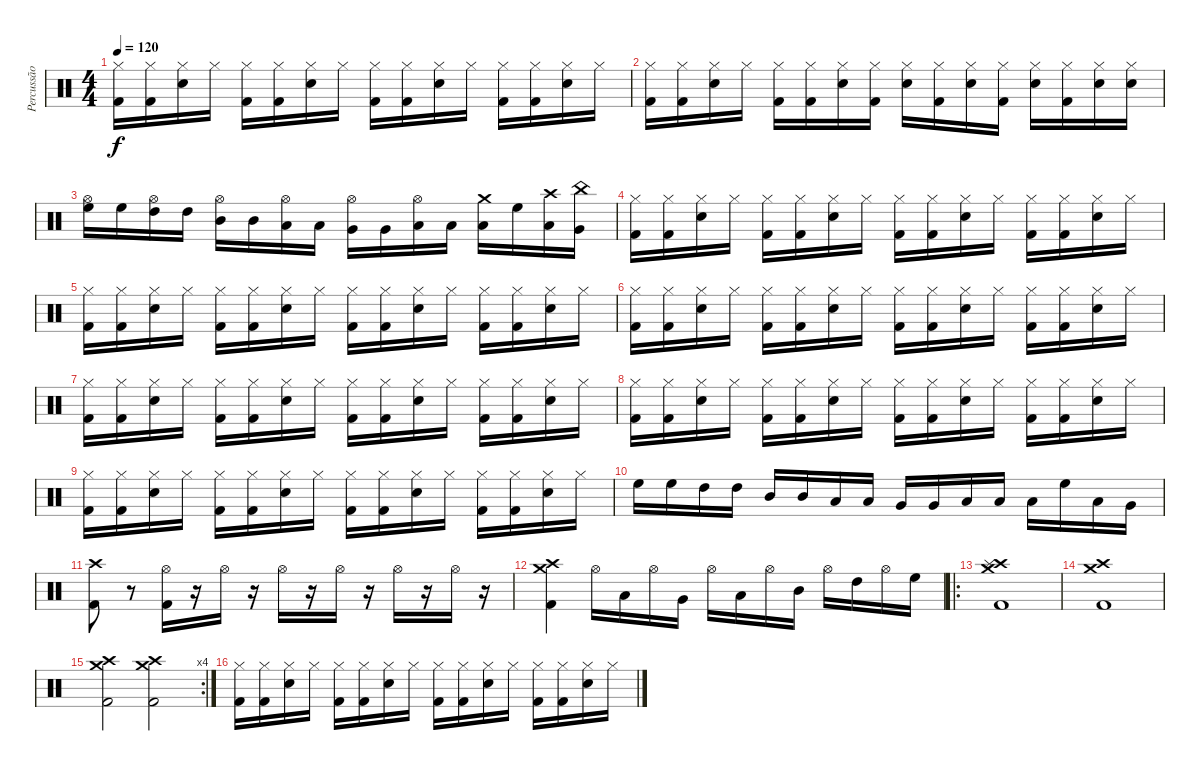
\track ("Percussão" "Percussão") {instrument percussion}
\staff {score}
\articulation defaults
\ts (4 4)
\tempo 120
\clef neutral
\ks c
("Hi-Hat (closed)" "Kick (hit) 2").16{dy f} ("Hi-Hat (closed)" "Kick (hit) 2").16 ("Hi-Hat (closed)" "Electric Snare (hit)").16 "Hi-Hat (closed)".16 ("Hi-Hat (closed)" "Kick (hit) 2").16 ("Hi-Hat (closed)" "Kick (hit) 2").16 ("Hi-Hat (closed)" "Electric Snare (hit)").16 "Hi-Hat (closed)".16 ("Hi-Hat (closed)" "Kick (hit) 2").16 ("Hi-Hat (closed)" "Kick (hit) 2").16 ("Hi-Hat (closed)" "Electric Snare (hit)").16 "Hi-Hat (closed)".16 ("Hi-Hat (closed)" "Kick (hit) 2").16 ("Hi-Hat (closed)" "Kick (hit) 2").16 ("Hi-Hat (closed)" "Electric Snare (hit)").16 "Hi-Hat (closed)".16 |
("Hi-Hat (closed)" "Kick (hit) 2").16 ("Hi-Hat (closed)" "Kick (hit) 2").16 ("Hi-Hat (closed)" "Electric Snare (hit)").16 "Hi-Hat (closed)".16 ("Hi-Hat (closed)" "Kick (hit) 2").16 ("Hi-Hat (closed)" "Kick (hit) 2").16 ("Hi-Hat (closed)" "Electric Snare (hit)").16 ("Hi-Hat (closed)" "Kick (hit) 2").16 ("Hi-Hat (closed)" "Electric Snare (hit)").16 ("Hi-Hat (closed)" "Kick (hit) 2").16 ("Hi-Hat (closed)" "Electric Snare (hit)").16 ("Hi-Hat (closed)" "Kick (hit) 2").16 ("Hi-Hat (closed)" "Electric Snare (hit)").16 ("Hi-Hat (closed)" "Kick (hit) 2").16 ("Hi-Hat (closed)" "Electric Snare (hit)").16 ("Hi-Hat (closed)" "Electric Snare (hit)").16 |
("Hi-Hat (open)" "High Floor Tom (hit)").16 "High Floor Tom (hit)".16 ("Hi-Hat (open)" "High Tom (hit)").16 "High Tom (hit)".16 ("Hi-Hat (open)" "Mid Tom (hit)").16 "Mid Tom (hit)".16 ("Hi-Hat (open)" "Low Tom (hit)").16 "Low Tom (hit)".16 ("Hi-Hat (open)" "Very Low Tom (hit)").16 "Very Low Tom (hit)".16 ("Hi-Hat (open)" "Low Floor Tom (hit)").16 "Low Floor Tom (hit)".16 ("Crash medium (hit)" "Low Tom (hit)").16 "High Floor Tom (hit)".16 ("Crash high (hit)" "Low Floor Tom (hit)").16 ("China (hit)" "Very Low Tom (hit)").16 |
("Hi-Hat (closed)" "Kick (hit) 2").16 ("Hi-Hat (closed)" "Kick (hit) 2").16 ("Hi-Hat (closed)" "Electric Snare (hit)").16 "Hi-Hat (closed)".16 ("Hi-Hat (closed)" "Kick (hit) 2").16 ("Hi-Hat (closed)" "Kick (hit) 2").16 ("Hi-Hat (closed)" "Electric Snare (hit)").16 "Hi-Hat (closed)".16 ("Hi-Hat (closed)" "Kick (hit) 2").16 ("Hi-Hat (closed)" "Kick (hit) 2").16 ("Hi-Hat (closed)" "Electric Snare (hit)").16 "Hi-Hat (closed)".16 ("Hi-Hat (closed)" "Kick (hit) 2").16 ("Hi-Hat (closed)" "Kick (hit) 2").16 ("Hi-Hat (closed)" "Electric Snare (hit)").16 "Hi-Hat (closed)".16 |
("Hi-Hat (closed)" "Kick (hit) 2").16 ("Hi-Hat (closed)" "Kick (hit) 2").16 ("Hi-Hat (closed)" "Electric Snare (hit)").16 "Hi-Hat (closed)".16 ("Hi-Hat (closed)" "Kick (hit) 2").16 ("Hi-Hat (closed)" "Kick (hit) 2").16 ("Hi-Hat (closed)" "Electric Snare (hit)").16 "Hi-Hat (closed)".16 ("Hi-Hat (closed)" "Kick (hit) 2").16 ("Hi-Hat (closed)" "Kick (hit) 2").16 ("Hi-Hat (closed)" "Electric Snare (hit)").16 "Hi-Hat (closed)".16 ("Hi-Hat (closed)" "Kick (hit) 2").16 ("Hi-Hat (closed)" "Kick (hit) 2").16 ("Hi-Hat (closed)" "Electric Snare (hit)").16 "Hi-Hat (closed)".16 |
("Hi-Hat (closed)" "Kick (hit) 2").16 ("Hi-Hat (closed)" "Kick (hit) 2").16 ("Hi-Hat (closed)" "Electric Snare (hit)").16 "Hi-Hat (closed)".16 ("Hi-Hat (closed)" "Kick (hit) 2").16 ("Hi-Hat (closed)" "Kick (hit) 2").16 ("Hi-Hat (closed)" "Electric Snare (hit)").16 "Hi-Hat (closed)".16 ("Hi-Hat (closed)" "Kick (hit) 2").16 ("Hi-Hat (closed)" "Kick (hit) 2").16 ("Hi-Hat (closed)" "Electric Snare (hit)").16 "Hi-Hat (closed)".16 ("Hi-Hat (closed)" "Kick (hit) 2").16 ("Hi-Hat (closed)" "Kick (hit) 2").16 ("Hi-Hat (closed)" "Electric Snare (hit)").16 "Hi-Hat (closed)".16 |
("Hi-Hat (closed)" "Kick (hit) 2").16 ("Hi-Hat (closed)" "Kick (hit) 2").16 ("Hi-Hat (closed)" "Electric Snare (hit)").16 "Hi-Hat (closed)".16 ("Hi-Hat (closed)" "Kick (hit) 2").16 ("Hi-Hat (closed)" "Kick (hit) 2").16 ("Hi-Hat (closed)" "Electric Snare (hit)").16 "Hi-Hat (closed)".16 ("Hi-Hat (closed)" "Kick (hit) 2").16 ("Hi-Hat (closed)" "Kick (hit) 2").16 ("Hi-Hat (closed)" "Electric Snare (hit)").16 "Hi-Hat (closed)".16 ("Hi-Hat (closed)" "Kick (hit) 2").16 ("Hi-Hat (closed)" "Kick (hit) 2").16 ("Hi-Hat (closed)" "Electric Snare (hit)").16 "Hi-Hat (closed)".16 |
("Hi-Hat (closed)" "Kick (hit) 2").16 ("Hi-Hat (closed)" "Kick (hit) 2").16 ("Hi-Hat (closed)" "Electric Snare (hit)").16 "Hi-Hat (closed)".16 ("Hi-Hat (closed)" "Kick (hit) 2").16 ("Hi-Hat (closed)" "Kick (hit) 2").16 ("Hi-Hat (closed)" "Electric Snare (hit)").16 "Hi-Hat (closed)".16 ("Hi-Hat (closed)" "Kick (hit) 2").16 ("Hi-Hat (closed)" "Kick (hit) 2").16 ("Hi-Hat (closed)" "Electric Snare (hit)").16 "Hi-Hat (closed)".16 ("Hi-Hat (closed)" "Kick (hit) 2").16 ("Hi-Hat (closed)" "Kick (hit) 2").16 ("Hi-Hat (closed)" "Electric Snare (hit)").16 "Hi-Hat (closed)".16 |
("Hi-Hat (closed)" "Kick (hit) 2").16 ("Hi-Hat (closed)" "Kick (hit) 2").16 ("Hi-Hat (closed)" "Electric Snare (hit)").16 "Hi-Hat (closed)".16 ("Hi-Hat (closed)" "Kick (hit) 2").16 ("Hi-Hat (closed)" "Kick (hit) 2").16 ("Hi-Hat (closed)" "Electric Snare (hit)").16 "Hi-Hat (closed)".16 ("Hi-Hat (closed)" "Kick (hit) 2").16 ("Hi-Hat (closed)" "Kick (hit) 2").16 ("Hi-Hat (closed)" "Electric Snare (hit)").16 "Hi-Hat (closed)".16 ("Hi-Hat (closed)" "Kick (hit) 2").16 ("Hi-Hat (closed)" "Kick (hit) 2").16 ("Hi-Hat (closed)" "Electric Snare (hit)").16 "Hi-Hat (closed)".16 |
"High Floor Tom (hit)".16 "High Floor Tom (hit)".16 "High Tom (hit)".16 "High Tom (hit)".16 "Mid Tom (hit)".16 "Mid Tom (hit)".16 "Low Tom (hit)".16 "Low Tom (hit)".16 "Very Low Tom (hit)".16 "Very Low Tom (hit)".16 "Low Floor Tom (hit)".16 "Low Floor Tom (hit)".16 "Low Tom (hit)".16 "High Floor Tom (hit)".16 "Low Floor Tom (hit)".16 "Very Low Tom (hit)".16 |
("Crash high (hit)" "Kick (hit) 2").8 r.8 ("Hi-Hat (open)" "Kick (hit) 2").16 r.16 "Hi-Hat (open)".16 r.16 "Hi-Hat (open)".16 r.16 "Hi-Hat (open)".16 r.16 "Hi-Hat (open)".16 r.16 "Hi-Hat (open)".16 r.16 |
("Crash high (hit)" "Crash medium (hit)" "Kick (hit) 2").4 "Hi-Hat (open)".16 "Low Floor Tom (hit)".16 "Hi-Hat (open)".16 "Very Low Tom (hit)".16 "Hi-Hat (open)".16 "Low Tom (hit)".16 "Hi-Hat (open)".16 "Mid Tom (hit)".16 "Hi-Hat (open)".16 "High Tom (hit)".16 "Hi-Hat (open)".16 "High Floor Tom (hit)".16 |
\ro
("Crash high (hit)" "Crash medium (hit)" "Splash (hit)" "Kick (hit) 2").1 |
("Crash high (hit)" "Crash medium (hit)" "Kick (hit) 2").1 |
\rc 4
("Crash medium (hit)" "Crash high (hit)" "Kick (hit) 2").2 ("Crash medium (hit)" "Crash high (hit)" "Kick (hit) 2").2 |
("Hi-Hat (closed)" "Kick (hit) 2").16 ("Hi-Hat (closed)" "Kick (hit) 2").16 ("Hi-Hat (closed)" "Electric Snare (hit)").16 "Hi-Hat (closed)".16 ("Hi-Hat (closed)" "Kick (hit) 2").16 ("Hi-Hat (closed)" "Kick (hit) 2").16 ("Hi-Hat (closed)" "Electric Snare (hit)").16 "Hi-Hat (closed)".16 ("Hi-Hat (closed)" "Kick (hit) 2").16 ("Hi-Hat (closed)" "Kick (hit) 2").16 ("Hi-Hat (closed)" "Electric Snare (hit)").16 "Hi-Hat (closed)".16 ("Hi-Hat (closed)" "Kick (hit) 2").16 ("Hi-Hat (closed)" "Kick (hit) 2").16 ("Hi-Hat (closed)" "Electric Snare (hit)").16 "Hi-Hat (closed)".16
